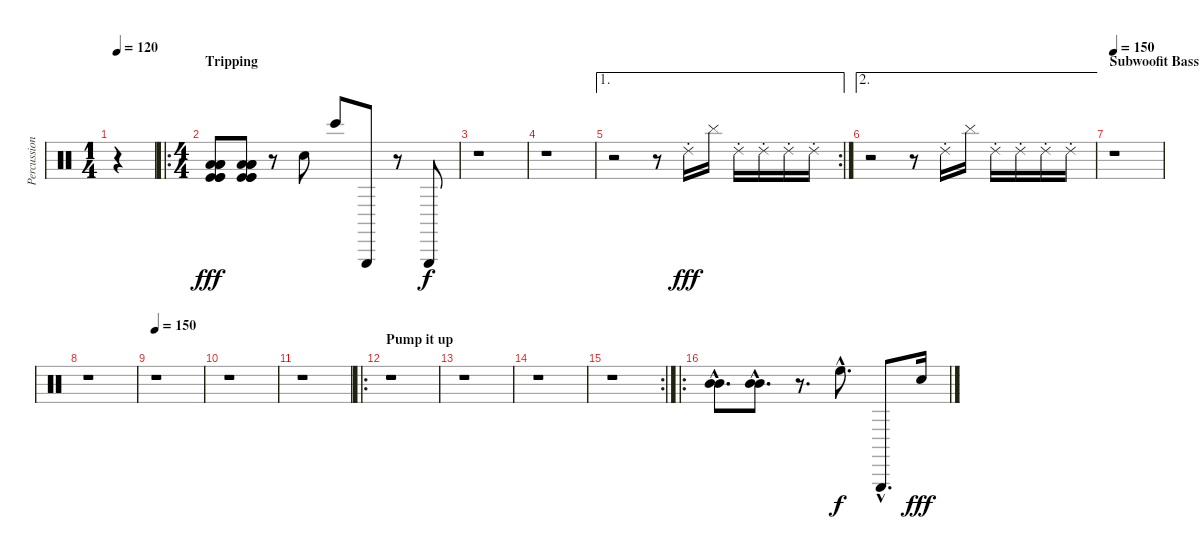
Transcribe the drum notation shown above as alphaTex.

\track ("Percussion" "Percussion") {instrument percussion}
\staff {score}
\articulation defaults
\ts (1 4)
\tempo 120
\clef neutral
\ks c
r.4{dy fff} |
\ro
\ts (4 4)
\section ("" "Tripping")
("Low Floor Tom (hit)" "Low Floor Tom (hit)" "Low Floor Tom (hit)" "Kick (hit)" "Kick (hit)" "Kick (hit)").8 ("Low Floor Tom (hit)" "Low Floor Tom (hit)" "Low Floor Tom (hit)" "Kick (hit)" "Kick (hit)" "Kick (hit)").8 r.8 "Hand Clap (hit)".8 "Bongo High (hit)".8 "Triangle (hit)".8 r.8 "Triangle (hit)".8{dy f} |
r.1 |
r.1 |
\ae 1
\rc 2
r.2 r.8 "Ride (choke) 2".16{dy fff} "Cymbal (hit)".16 "Ride (choke) 2".16 "Ride (choke) 2".16 "Ride (choke) 2".16 "Ride (choke) 2".16 |
\ae 2
r.2 r.8 "Ride (choke) 2".16 "Cymbal (hit)".16 "Ride (choke) 2".16 "Ride (choke) 2".16 "Ride (choke) 2".16 "Ride (choke) 2".16 |
\section ("" "Subwoofit Bass")
\tempo 150
r.1 |
r.1 |
\tempo 150
r.1 |
r.1 |
r.1 |
\ro
\section ("" "Pump it up")
r.1 |
r.1 |
r.1 |
\rc 2
r.1 |
\ro
("Mid Tom (hit)"{hac} "Mid Tom (hit)"{hac}).8{d} ("Mid Tom (hit)"{hac} "Mid Tom (hit)"{hac}).8{d} r.8{d} "High Floor Tom (hit)"{hac}.8{d dy f} "Triangle (hit)"{hac}.8{d} "Hand Clap (hit)".16{dy fff}
